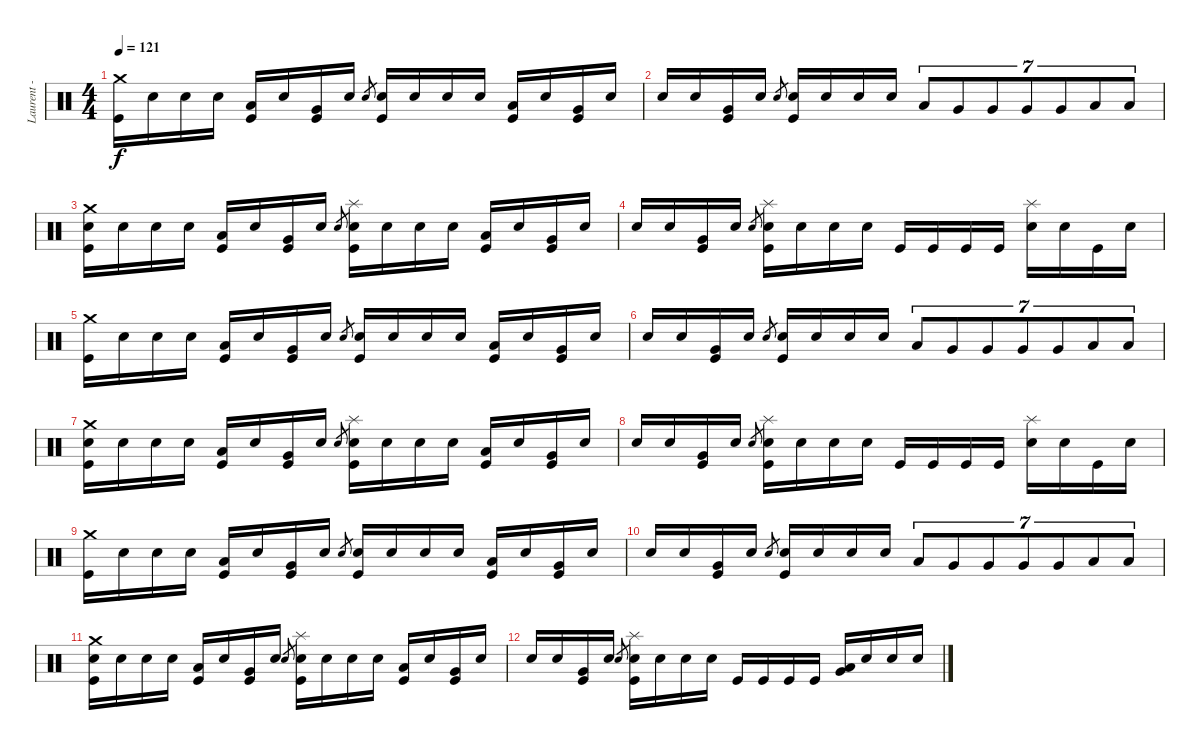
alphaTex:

\track ("Laurent - Batterie" "Laurent - ") {instrument percussion}
\staff {score}
\articulation defaults
\ts (4 4)
\tempo 121
\clef neutral
\ks c
("Crash medium (hit)" "Kick (hit)").16{dy f} "Snare (hit)".16 "Snare (hit)".16 "Snare (hit)".16 ("Low Tom (hit)" "Kick (hit)").16 "Snare (hit)".16 ("Very Low Tom (hit)" "Kick (hit)").16 "Snare (hit)".16 "Electric Snare (hit)".8{gr} ("Electric Snare (hit)" "Kick (hit)").16 "Snare (hit)".16 "Snare (hit)".16 "Snare (hit)".16 ("Low Tom (hit)" "Kick (hit)").16 "Snare (hit)".16 ("Very Low Tom (hit)" "Kick (hit)").16 "Snare (hit)".16 |
"Snare (hit)".16 "Snare (hit)".16 ("Very Low Tom (hit)" "Kick (hit)").16 "Snare (hit)".16 "Electric Snare (hit)".8{gr} ("Electric Snare (hit)" "Kick (hit)").16 "Snare (hit)".16 "Snare (hit)".16 "Snare (hit)".16 "Low Tom (hit)".8{tu (7 4)} "Very Low Tom (hit)".8{tu (7 4)} "Very Low Tom (hit)".8{tu (7 4)} "Very Low Tom (hit)".8{tu (7 4)} "Very Low Tom (hit)".8{tu (7 4)} "Low Floor Tom (hit)".8{tu (7 4)} "Low Floor Tom (hit)".8{tu (7 4)} |
("Crash medium (hit)" "Electric Snare (hit)" "Kick (hit)").16 "Snare (hit)".16 "Snare (hit)".16 "Snare (hit)".16 ("Low Tom (hit)" "Kick (hit)").16 "Snare (hit)".16 ("Very Low Tom (hit)" "Kick (hit)").16 "Snare (hit)".16 "Electric Snare (hit)".8{gr} ("Splash (hit)" "Electric Snare (hit)" "Kick (hit)").16 "Snare (hit)".16 "Snare (hit)".16 "Snare (hit)".16 ("Low Tom (hit)" "Kick (hit)").16 "Snare (hit)".16 ("Very Low Tom (hit)" "Kick (hit)").16 "Snare (hit)".16 |
"Snare (hit)".16 "Snare (hit)".16 ("Very Low Tom (hit)" "Kick (hit)").16 "Snare (hit)".16 "Electric Snare (hit)".8{gr} ("Splash (hit)" "Electric Snare (hit)" "Kick (hit)").16 "Snare (hit)".16 "Snare (hit)".16 "Snare (hit)".16 "Kick (hit)".16 "Kick (hit)".16 "Kick (hit)".16 "Kick (hit)".16 ("Splash (hit)" "Electric Snare (hit)").16 "Snare (hit)".16 "Kick (hit)".16 "Snare (hit)".16 |
("Crash medium (hit)" "Kick (hit)").16 "Snare (hit)".16 "Snare (hit)".16 "Snare (hit)".16 ("Low Tom (hit)" "Kick (hit)").16 "Snare (hit)".16 ("Very Low Tom (hit)" "Kick (hit)").16 "Snare (hit)".16 "Electric Snare (hit)".8{gr} ("Electric Snare (hit)" "Kick (hit)").16 "Snare (hit)".16 "Snare (hit)".16 "Snare (hit)".16 ("Low Tom (hit)" "Kick (hit)").16 "Snare (hit)".16 ("Very Low Tom (hit)" "Kick (hit)").16 "Snare (hit)".16 |
"Snare (hit)".16 "Snare (hit)".16 ("Very Low Tom (hit)" "Kick (hit)").16 "Snare (hit)".16 "Electric Snare (hit)".8{gr} ("Electric Snare (hit)" "Kick (hit)").16 "Snare (hit)".16 "Snare (hit)".16 "Snare (hit)".16 "Low Tom (hit)".8{tu (7 4)} "Very Low Tom (hit)".8{tu (7 4)} "Very Low Tom (hit)".8{tu (7 4)} "Very Low Tom (hit)".8{tu (7 4)} "Very Low Tom (hit)".8{tu (7 4)} "Low Floor Tom (hit)".8{tu (7 4)} "Low Floor Tom (hit)".8{tu (7 4)} |
("Crash medium (hit)" "Electric Snare (hit)" "Kick (hit)").16 "Snare (hit)".16 "Snare (hit)".16 "Snare (hit)".16 ("Low Tom (hit)" "Kick (hit)").16 "Snare (hit)".16 ("Very Low Tom (hit)" "Kick (hit)").16 "Snare (hit)".16 "Electric Snare (hit)".8{gr} ("Splash (hit)" "Electric Snare (hit)" "Kick (hit)").16 "Snare (hit)".16 "Snare (hit)".16 "Snare (hit)".16 ("Low Tom (hit)" "Kick (hit)").16 "Snare (hit)".16 ("Very Low Tom (hit)" "Kick (hit)").16 "Snare (hit)".16 |
"Snare (hit)".16 "Snare (hit)".16 ("Very Low Tom (hit)" "Kick (hit)").16 "Snare (hit)".16 "Electric Snare (hit)".8{gr} ("Splash (hit)" "Electric Snare (hit)" "Kick (hit)").16 "Snare (hit)".16 "Snare (hit)".16 "Snare (hit)".16 "Kick (hit)".16 "Kick (hit)".16 "Kick (hit)".16 "Kick (hit)".16 ("Splash (hit)" "Electric Snare (hit)").16 "Snare (hit)".16 "Kick (hit)".16 "Snare (hit)".16 |
("Crash medium (hit)" "Kick (hit)").16 "Snare (hit)".16 "Snare (hit)".16 "Snare (hit)".16 ("Low Tom (hit)" "Kick (hit)").16 "Snare (hit)".16 ("Very Low Tom (hit)" "Kick (hit)").16 "Snare (hit)".16 "Electric Snare (hit)".8{gr} ("Electric Snare (hit)" "Kick (hit)").16 "Snare (hit)".16 "Snare (hit)".16 "Snare (hit)".16 ("Low Tom (hit)" "Kick (hit)").16 "Snare (hit)".16 ("Very Low Tom (hit)" "Kick (hit)").16 "Snare (hit)".16 |
"Snare (hit)".16 "Snare (hit)".16 ("Very Low Tom (hit)" "Kick (hit)").16 "Snare (hit)".16 "Electric Snare (hit)".8{gr} ("Electric Snare (hit)" "Kick (hit)").16 "Snare (hit)".16 "Snare (hit)".16 "Snare (hit)".16 "Low Tom (hit)".8{tu (7 4)} "Very Low Tom (hit)".8{tu (7 4)} "Very Low Tom (hit)".8{tu (7 4)} "Very Low Tom (hit)".8{tu (7 4)} "Very Low Tom (hit)".8{tu (7 4)} "Low Floor Tom (hit)".8{tu (7 4)} "Low Floor Tom (hit)".8{tu (7 4)} |
("Crash medium (hit)" "Electric Snare (hit)" "Kick (hit)").16 "Snare (hit)".16 "Snare (hit)".16 "Snare (hit)".16 ("Low Tom (hit)" "Kick (hit)").16 "Snare (hit)".16 ("Very Low Tom (hit)" "Kick (hit)").16 "Snare (hit)".16 "Electric Snare (hit)".8{gr} ("Splash (hit)" "Electric Snare (hit)" "Kick (hit)").16 "Snare (hit)".16 "Snare (hit)".16 "Snare (hit)".16 ("Low Tom (hit)" "Kick (hit)").16 "Snare (hit)".16 ("Very Low Tom (hit)" "Kick (hit)").16 "Snare (hit)".16 |
"Snare (hit)".16 "Snare (hit)".16 ("Very Low Tom (hit)" "Kick (hit)").16 "Snare (hit)".16 "Electric Snare (hit)".8{gr} ("Splash (hit)" "Electric Snare (hit)" "Kick (hit)").16 "Snare (hit)".16 "Snare (hit)".16 "Snare (hit)".16 "Kick (hit)".16 "Kick (hit)".16 "Kick (hit)".16 "Kick (hit)".16 ("Low Tom (hit)" "Very Low Tom (hit)").16 "Snare (hit)".16 "Snare (hit)".16 "Snare (hit)".16
